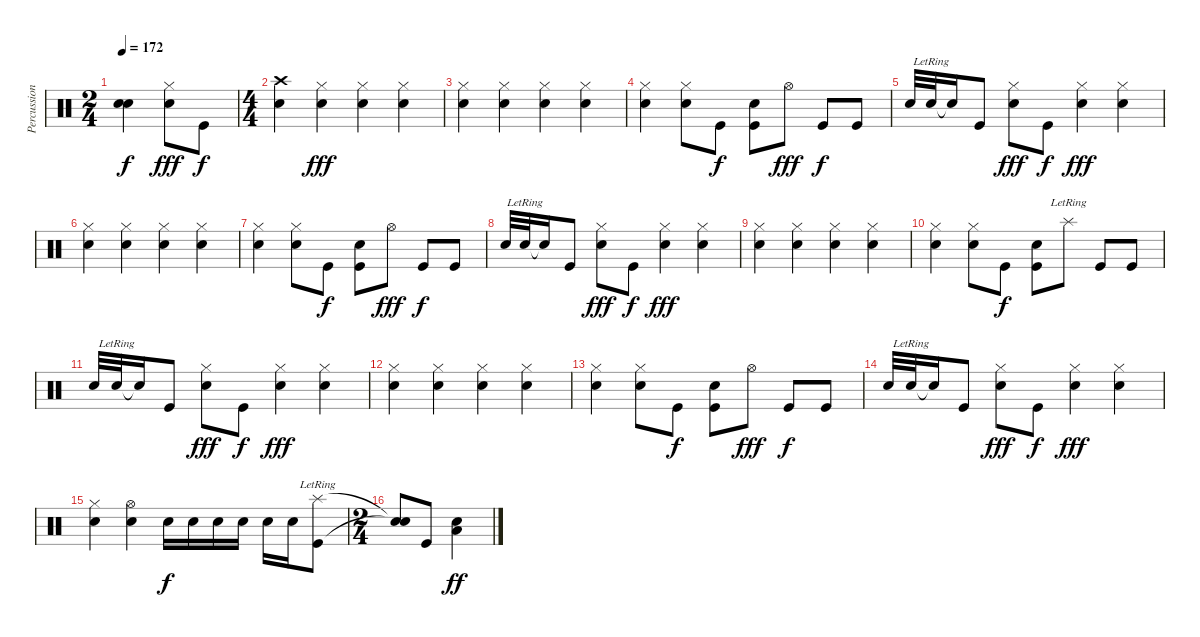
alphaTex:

\track ("Percussions" "Percussion") {instrument percussion}
\staff {score}
\articulation defaults
\ts (2 4)
\tempo 172
\clef neutral
\ks c
("Snare (hit)"{t} "Snare (hit)"{t}).4{dy f} ("Hi-Hat (closed)" "Snare (hit) 2").8{dy fff} "Kick (hit)".8{dy f} |
\ts (4 4)
("Crash high (hit)" "Snare (hit) 2").4 ("Hi-Hat (closed)" "Snare (hit) 2").4{dy fff} ("Hi-Hat (closed)" "Snare (hit) 2").4 ("Hi-Hat (closed)" "Snare (hit) 2").4 |
("Hi-Hat (closed)" "Snare (hit) 2").4 ("Hi-Hat (closed)" "Snare (hit) 2").4 ("Hi-Hat (closed)" "Snare (hit) 2").4 ("Hi-Hat (closed)" "Snare (hit) 2").4 |
("Hi-Hat (closed)" "Snare (hit) 2").4 ("Hi-Hat (closed)" "Snare (hit) 2").8 "Kick (hit)".8{dy f} ("Snare (hit) 2" "Kick (hit)").8 "Hi-Hat (open)".8{dy fff} "Kick (hit)".8{dy f} "Kick (hit)".8 |
"Snare (hit) 2".32 "Snare (hit) 2"{lr}.32 "Snare (hit)"{t}.16 "Kick (hit)".8 ("Hi-Hat (closed)" "Snare (hit) 2").8{dy fff} "Kick (hit)".8{dy f} ("Hi-Hat (closed)" "Snare (hit) 2").4{dy fff} ("Hi-Hat (closed)" "Snare (hit) 2").4 |
("Hi-Hat (closed)" "Snare (hit) 2").4 ("Hi-Hat (closed)" "Snare (hit) 2").4 ("Hi-Hat (closed)" "Snare (hit) 2").4 ("Hi-Hat (closed)" "Snare (hit) 2").4 |
("Hi-Hat (closed)" "Snare (hit) 2").4 ("Hi-Hat (closed)" "Snare (hit) 2").8 "Kick (hit)".8{dy f} ("Snare (hit) 2" "Kick (hit)").8 "Hi-Hat (open)".8{dy fff} "Kick (hit)".8{dy f} "Kick (hit)".8 |
"Snare (hit) 2".32 "Snare (hit) 2"{lr}.32 "Snare (hit)"{t}.16 "Kick (hit)".8 ("Hi-Hat (closed)" "Snare (hit) 2").8{dy fff} "Kick (hit)".8{dy f} ("Hi-Hat (closed)" "Snare (hit) 2").4{dy fff} ("Hi-Hat (closed)" "Snare (hit) 2").4 |
("Hi-Hat (closed)" "Snare (hit) 2").4 ("Hi-Hat (closed)" "Snare (hit) 2").4 ("Hi-Hat (closed)" "Snare (hit) 2").4 ("Hi-Hat (closed)" "Snare (hit) 2").4 |
("Hi-Hat (closed)" "Snare (hit) 2").4 ("Hi-Hat (closed)" "Snare (hit) 2").8 "Kick (hit)".8{dy f} ("Snare (hit) 2" "Kick (hit)").8 "Splash (hit)"{lr}.8 "Kick (hit)".8 "Kick (hit)".8 |
"Snare (hit) 2".32 "Snare (hit) 2"{lr}.32 "Snare (hit)"{t}.16 "Kick (hit)".8 ("Hi-Hat (closed)" "Snare (hit) 2").8{dy fff} "Kick (hit)".8{dy f} ("Hi-Hat (closed)" "Snare (hit) 2").4{dy fff} ("Hi-Hat (closed)" "Snare (hit) 2").4 |
("Hi-Hat (closed)" "Snare (hit) 2").4 ("Hi-Hat (closed)" "Snare (hit) 2").4 ("Hi-Hat (closed)" "Snare (hit) 2").4 ("Hi-Hat (closed)" "Snare (hit) 2").4 |
("Hi-Hat (closed)" "Snare (hit) 2").4 ("Hi-Hat (closed)" "Snare (hit) 2").8 "Kick (hit)".8{dy f} ("Snare (hit) 2" "Kick (hit)").8 "Hi-Hat (open)".8{dy fff} "Kick (hit)".8{dy f} "Kick (hit)".8 |
"Snare (hit) 2".32 "Snare (hit) 2"{lr}.32 "Snare (hit)"{t}.16 "Kick (hit)".8 ("Hi-Hat (closed)" "Snare (hit) 2").8{dy fff} "Kick (hit)".8{dy f} ("Hi-Hat (closed)" "Snare (hit) 2").4{dy fff} ("Hi-Hat (closed)" "Snare (hit) 2").4 |
("Hi-Hat (closed)" "Snare (hit) 2").4 ("Hi-Hat (open)" "Snare (hit) 2").4 "Snare (hit) 2".16{dy f} "Snare (hit) 2".16 "Snare (hit) 2".16 "Snare (hit) 2".16 "Snare (hit) 2".16 "Snare (hit) 2".16 ("Splash (hit)"{lr} "Kick (hit)").8 |
\ts (2 4)
("Snare (hit)"{t} "Snare (hit)"{t}).8 "Kick (hit)".8 ("Snare (hit) 2" "Low Floor Tom (hit)").4{dy ff}
